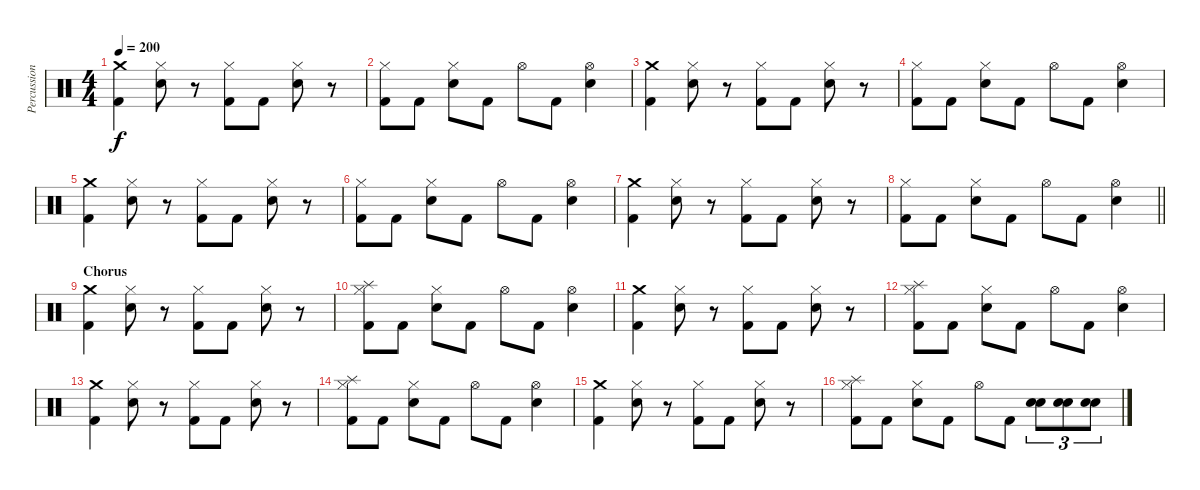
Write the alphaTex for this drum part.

\track ("Percussion" "Percussion") {instrument percussion}
\staff {score}
\articulation defaults
\ts (4 4)
\tempo 200
\clef neutral
\ks c
("Crash medium (hit)" "Kick (hit) 2").4{dy f} ("Hi-Hat (closed)" "Snare (hit) 2").8 r.8 ("Hi-Hat (closed)" "Kick (hit) 2").8 "Kick (hit) 2".8 ("Hi-Hat (closed)" "Snare (hit) 2").8 r.8 |
("Hi-Hat (closed)" "Kick (hit) 2").8 "Kick (hit) 2".8 ("Hi-Hat (closed)" "Snare (hit) 2").8 "Kick (hit) 2".8 "Hi-Hat (open)".8 "Kick (hit) 2".8 ("Hi-Hat (open)" "Snare (hit) 2").4 |
("Crash medium (hit)" "Kick (hit) 2").4 ("Hi-Hat (closed)" "Snare (hit) 2").8 r.8 ("Hi-Hat (closed)" "Kick (hit) 2").8 "Kick (hit) 2".8 ("Hi-Hat (closed)" "Snare (hit) 2").8 r.8 |
("Hi-Hat (closed)" "Kick (hit) 2").8 "Kick (hit) 2".8 ("Hi-Hat (closed)" "Snare (hit) 2").8 "Kick (hit) 2".8 "Hi-Hat (open)".8 "Kick (hit) 2".8 ("Hi-Hat (open)" "Snare (hit) 2").4 |
("Crash medium (hit)" "Kick (hit) 2").4 ("Hi-Hat (closed)" "Snare (hit) 2").8 r.8 ("Hi-Hat (closed)" "Kick (hit) 2").8 "Kick (hit) 2".8 ("Hi-Hat (closed)" "Snare (hit) 2").8 r.8 |
("Hi-Hat (closed)" "Kick (hit) 2").8 "Kick (hit) 2".8 ("Hi-Hat (closed)" "Snare (hit) 2").8 "Kick (hit) 2".8 "Hi-Hat (open)".8 "Kick (hit) 2".8 ("Hi-Hat (open)" "Snare (hit) 2").4 |
("Crash medium (hit)" "Kick (hit) 2").4 ("Hi-Hat (closed)" "Snare (hit) 2").8 r.8 ("Hi-Hat (closed)" "Kick (hit) 2").8 "Kick (hit) 2".8 ("Hi-Hat (closed)" "Snare (hit) 2").8 r.8 |
\barLineRight lightlight
("Hi-Hat (closed)" "Kick (hit) 2").8 "Kick (hit) 2".8 ("Hi-Hat (closed)" "Snare (hit) 2").8 "Kick (hit) 2".8 "Hi-Hat (open)".8 "Kick (hit) 2".8 ("Hi-Hat (open)" "Snare (hit) 2").4 |
\section ("" "Chorus")
("Crash medium (hit)" "Kick (hit) 2").4 ("Hi-Hat (closed)" "Snare (hit) 2").8 r.8 ("Hi-Hat (closed)" "Kick (hit) 2").8 "Kick (hit) 2".8 ("Hi-Hat (closed)" "Snare (hit) 2").8 r.8 |
("Splash (hit)" "Hi-Hat (closed)" "Kick (hit) 2").8 "Kick (hit) 2".8 ("Hi-Hat (closed)" "Snare (hit) 2").8 "Kick (hit) 2".8 "Hi-Hat (open)".8 "Kick (hit) 2".8 ("Hi-Hat (open)" "Snare (hit) 2").4 |
("Crash medium (hit)" "Kick (hit) 2").4 ("Hi-Hat (closed)" "Snare (hit) 2").8 r.8 ("Hi-Hat (closed)" "Kick (hit) 2").8 "Kick (hit) 2".8 ("Hi-Hat (closed)" "Snare (hit) 2").8 r.8 |
("Splash (hit)" "Hi-Hat (closed)" "Kick (hit) 2").8 "Kick (hit) 2".8 ("Hi-Hat (closed)" "Snare (hit) 2").8 "Kick (hit) 2".8 "Hi-Hat (open)".8 "Kick (hit) 2".8 ("Hi-Hat (open)" "Snare (hit) 2").4 |
("Crash medium (hit)" "Kick (hit) 2").4 ("Hi-Hat (closed)" "Snare (hit) 2").8 r.8 ("Hi-Hat (closed)" "Kick (hit) 2").8 "Kick (hit) 2".8 ("Hi-Hat (closed)" "Snare (hit) 2").8 r.8 |
("Splash (hit)" "Hi-Hat (closed)" "Kick (hit) 2").8 "Kick (hit) 2".8 ("Hi-Hat (closed)" "Snare (hit) 2").8 "Kick (hit) 2".8 "Hi-Hat (open)".8 "Kick (hit) 2".8 ("Hi-Hat (open)" "Snare (hit) 2").4 |
("Crash medium (hit)" "Kick (hit) 2").4 ("Hi-Hat (closed)" "Snare (hit) 2").8 r.8 ("Hi-Hat (closed)" "Kick (hit) 2").8 "Kick (hit) 2".8 ("Hi-Hat (closed)" "Snare (hit) 2").8 r.8 |
("Splash (hit)" "Hi-Hat (closed)" "Kick (hit) 2").8 "Kick (hit) 2".8 ("Hi-Hat (closed)" "Snare (hit) 2").8 "Kick (hit) 2".8 "Hi-Hat (open)".8 "Kick (hit) 2".8 ("Snare (hit) 2" "Snare (hit) 2").8{tu (3 2)} ("Snare (hit) 2" "Snare (hit) 2").8{tu (3 2)} ("Snare (hit) 2" "Snare (hit) 2").8{tu (3 2)}
